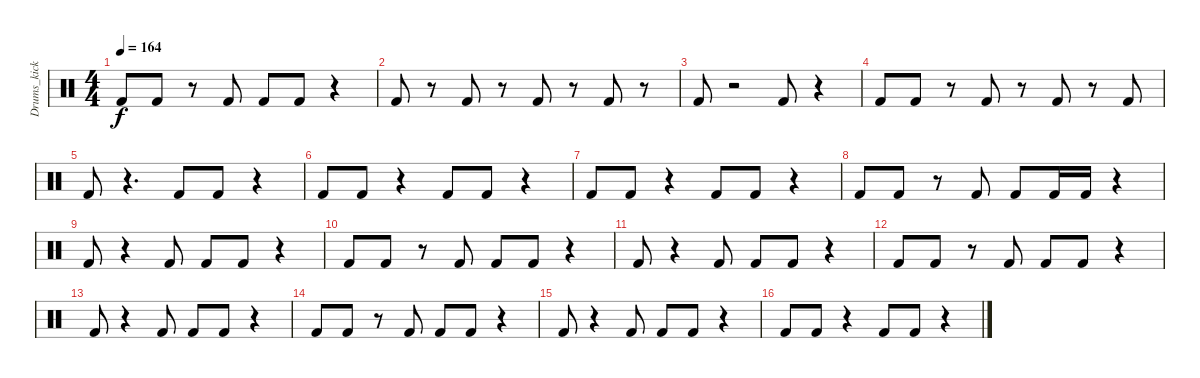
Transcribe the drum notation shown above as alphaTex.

\track ("Drums_kick" "Drums_kick") {instrument percussion}
\staff {score}
\articulation defaults
\ts (4 4)
\tempo 164
\clef neutral
\ks c "Kick (hit) 2".8{dy f} "Kick (hit) 2".8
r.8 "Kick (hit) 2".8 "Kick (hit) 2".8 "Kick (hit) 2".8 r.4 |
"Kick (hit) 2".8 r.8 "Kick (hit) 2".8 r.8 "Kick (hit) 2".8 r.8 "Kick (hit) 2".8 r.8 |
"Kick (hit) 2".8 r.2 "Kick (hit) 2".8 r.4 |
"Kick (hit) 2".8 "Kick (hit) 2".8 r.8 "Kick (hit) 2".8 r.8 "Kick (hit) 2".8 r.8 "Kick (hit) 2".8 |
"Kick (hit) 2".8 r.4{d} "Kick (hit) 2".8 "Kick (hit) 2".8 r.4 |
"Kick (hit) 2".8 "Kick (hit) 2".8 r.4 "Kick (hit) 2".8 "Kick (hit) 2".8 r.4 |
"Kick (hit) 2".8 "Kick (hit) 2".8 r.4 "Kick (hit) 2".8 "Kick (hit) 2".8 r.4 |
"Kick (hit) 2".8 "Kick (hit) 2".8 r.8 "Kick (hit) 2".8 "Kick (hit) 2".8 "Kick (hit) 2".16 "Kick (hit) 2".16 r.4 |
"Kick (hit) 2".8 r.4 "Kick (hit) 2".8 "Kick (hit) 2".8 "Kick (hit) 2".8 r.4 |
"Kick (hit) 2".8 "Kick (hit) 2".8 r.8 "Kick (hit) 2".8 "Kick (hit) 2".8 "Kick (hit) 2".8 r.4 |
"Kick (hit) 2".8 r.4 "Kick (hit) 2".8 "Kick (hit) 2".8 "Kick (hit) 2".8 r.4 |
"Kick (hit) 2".8 "Kick (hit) 2".8 r.8 "Kick (hit) 2".8 "Kick (hit) 2".8 "Kick (hit) 2".8 r.4 |
"Kick (hit) 2".8 r.4 "Kick (hit) 2".8 "Kick (hit) 2".8 "Kick (hit) 2".8 r.4 |
"Kick (hit) 2".8 "Kick (hit) 2".8 r.8 "Kick (hit) 2".8 "Kick (hit) 2".8 "Kick (hit) 2".8 r.4 |
"Kick (hit) 2".8 r.4 "Kick (hit) 2".8 "Kick (hit) 2".8 "Kick (hit) 2".8 r.4 |
"Kick (hit) 2".8 "Kick (hit) 2".8 r.4 "Kick (hit) 2".8 "Kick (hit) 2".8 r.4
